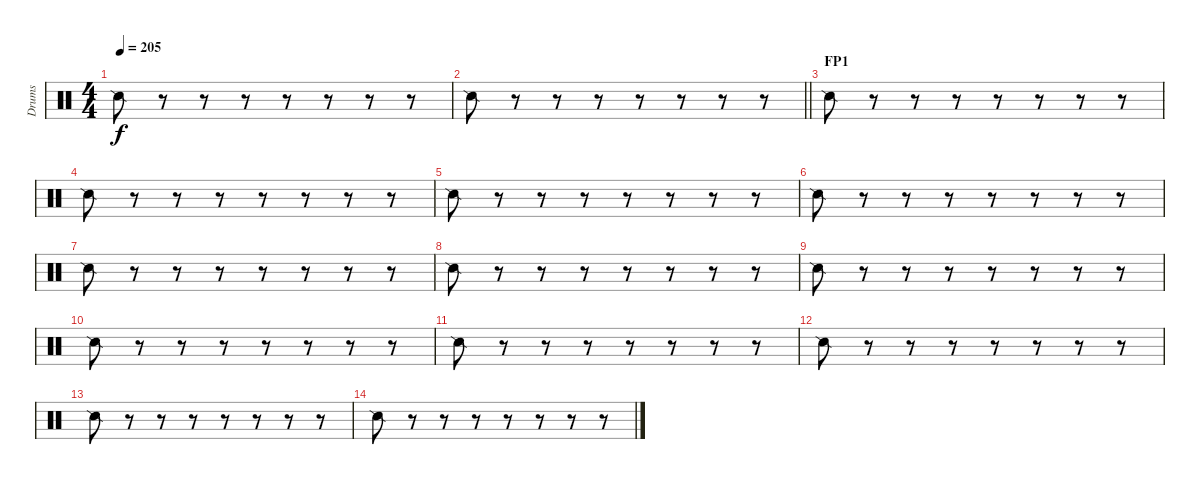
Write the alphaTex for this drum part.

\track ("Drums" "Drums") {instrument percussion}
\staff {score}
\articulation defaults
\ts (4 4)
\tempo 205
\clef neutral
\ks c "Snare (side stick) 2".8{dy f}
r.8 r.8 r.8 r.8 r.8 r.8 r.8 |
\barLineRight lightlight "Snare (side stick) 2".8
r.8 r.8 r.8 r.8 r.8 r.8 r.8 |
\section ("" "FP1")
"Snare (side stick) 2".8 r.8 r.8 r.8 r.8 r.8 r.8 r.8 |
"Snare (side stick) 2".8 r.8 r.8 r.8 r.8 r.8 r.8 r.8 |
"Snare (side stick) 2".8 r.8 r.8 r.8 r.8 r.8 r.8 r.8 |
"Snare (side stick) 2".8 r.8 r.8 r.8 r.8 r.8 r.8 r.8 |
"Snare (side stick) 2".8 r.8 r.8 r.8 r.8 r.8 r.8 r.8 |
"Snare (side stick) 2".8 r.8 r.8 r.8 r.8 r.8 r.8 r.8 |
"Snare (side stick) 2".8 r.8 r.8 r.8 r.8 r.8 r.8 r.8 |
"Snare (side stick) 2".8 r.8 r.8 r.8 r.8 r.8 r.8 r.8 |
"Snare (side stick) 2".8 r.8 r.8 r.8 r.8 r.8 r.8 r.8 |
"Snare (side stick) 2".8 r.8 r.8 r.8 r.8 r.8 r.8 r.8 |
"Snare (side stick) 2".8 r.8 r.8 r.8 r.8 r.8 r.8 r.8 |
"Snare (side stick) 2".8 r.8 r.8 r.8 r.8 r.8 r.8 r.8
